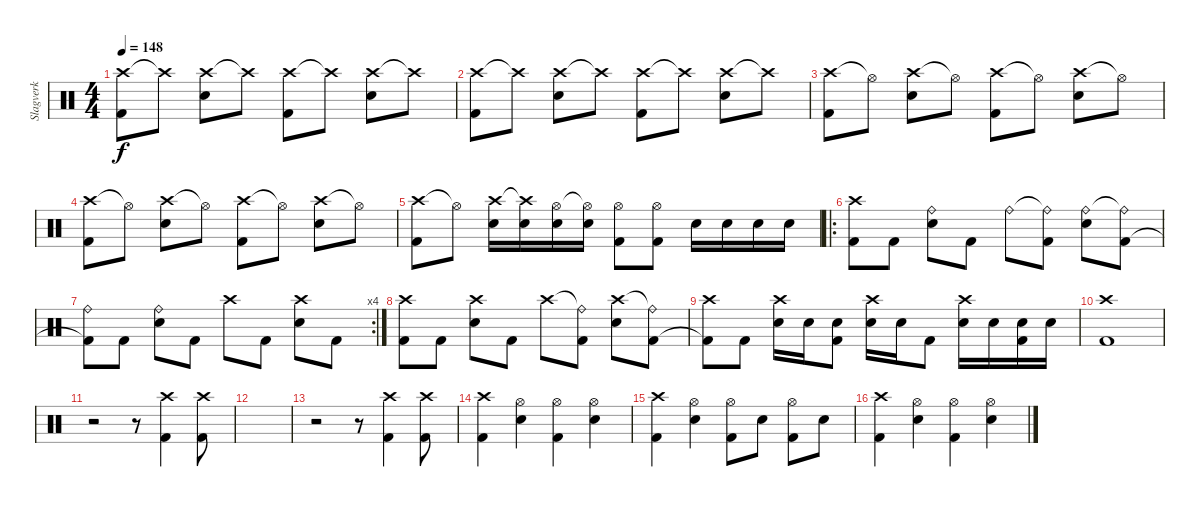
\track ("Slagverk" "Slagverk") {instrument percussion}
\staff {score}
\articulation defaults
\ts (4 4)
\tempo 148
\clef neutral
\ks c
("Crash high (hit)" "Kick (hit) 2").8{dy f} "Crash high (hit)"{t}.8 ("Crash high (hit)" "Electric Snare (hit)").8 "Crash high (hit)"{t}.8 ("Crash high (hit)" "Kick (hit) 2").8 "Crash high (hit)"{t}.8 ("Crash high (hit)" "Electric Snare (hit)").8 "Crash high (hit)"{t}.8 |
("Crash high (hit)" "Kick (hit) 2").8 "Crash high (hit)"{t}.8 ("Crash high (hit)" "Electric Snare (hit)").8 "Crash high (hit)"{t}.8 ("Crash high (hit)" "Kick (hit) 2").8 "Crash high (hit)"{t}.8 ("Crash high (hit)" "Electric Snare (hit)").8 "Crash high (hit)"{t}.8 |
("Crash high (hit)" "Kick (hit) 2").8 "Hi-Hat (open)"{t}.8 ("Crash high (hit)" "Electric Snare (hit)").8 "Hi-Hat (open)"{t}.8 ("Crash high (hit)" "Kick (hit) 2").8 "Hi-Hat (open)"{t}.8 ("Crash high (hit)" "Electric Snare (hit)").8 "Hi-Hat (open)"{t}.8 |
("Crash high (hit)" "Kick (hit) 2").8 "Hi-Hat (open)"{t}.8 ("Crash high (hit)" "Electric Snare (hit)").8 "Hi-Hat (open)"{t}.8 ("Crash high (hit)" "Kick (hit) 2").8 "Hi-Hat (open)"{t}.8 ("Crash high (hit)" "Electric Snare (hit)").8 "Hi-Hat (open)"{t}.8 |
("Crash high (hit)" "Kick (hit) 2").8 "Hi-Hat (open)"{t}.8 ("Crash high (hit)" "Electric Snare (hit)").16 ("Crash high (hit)"{t} "Electric Snare (hit)").16 ("Hi-Hat (open)" "Electric Snare (hit)").16 ("Hi-Hat (open)"{t} "Electric Snare (hit)").16 ("Hi-Hat (open)" "Kick (hit) 2").8 ("Hi-Hat (open)" "Kick (hit) 2").8 "Electric Snare (hit)".16 "Electric Snare (hit)".16 "Electric Snare (hit)".16 "Electric Snare (hit)".16 |
\ro
("Crash high (hit)" "Kick (hit) 2").8 "Kick (hit) 2".8 ("Ride (bell)" "Electric Snare (hit)").8 "Kick (hit) 2".8 "Ride (bell)".8 ("Ride (bell)"{t} "Kick (hit) 2").8 ("Ride (bell)" "Electric Snare (hit)").8 ("Ride (bell)"{t} "Kick (hit) 2").8 |
\rc 4
("Ride (bell)" "Kick (hit) 2"{t}).8 "Kick (hit) 2".8 ("Ride (bell)" "Electric Snare (hit)").8 "Kick (hit) 2".8 "Crash high (hit)".8 "Kick (hit) 2".8 ("Crash high (hit)" "Electric Snare (hit)").8 "Kick (hit) 2".8 |
("Crash high (hit)" "Kick (hit) 2").8 "Kick (hit) 2".8 ("Crash high (hit)" "Electric Snare (hit)").8 "Kick (hit) 2".8 "Crash high (hit)".8 ("Ride (bell)"{t} "Kick (hit) 2").8 ("Crash high (hit)" "Electric Snare (hit)").8 ("Ride (bell)"{t} "Kick (hit) 2").8 |
("Crash high (hit)" "Kick (hit) 2"{t}).8 "Kick (hit) 2".8 ("Crash high (hit)" "Electric Snare (hit)").16 "Electric Snare (hit)".16 ("Electric Snare (hit)" "Kick (hit) 2").8 ("Crash high (hit)" "Electric Snare (hit)").16 "Electric Snare (hit)".16 "Kick (hit) 2".8 ("Crash high (hit)" "Electric Snare (hit)").16 "Electric Snare (hit)".16 ("Electric Snare (hit)" "Kick (hit) 2").16 "Electric Snare (hit)".16 |
("Crash high (hit)" "Kick (hit) 2").1 |
r.2 r.8 ("Crash high (hit)" "Kick (hit) 2").4 ("Crash high (hit)" "Kick (hit) 2").8 |
|
r.2 r.8 ("Crash high (hit)" "Kick (hit) 2").4 ("Crash high (hit)" "Kick (hit) 2").8 |
("Crash high (hit)" "Kick (hit) 2").4 ("Hi-Hat (open)" "Electric Snare (hit)").4 ("Hi-Hat (open)" "Kick (hit) 2").4 ("Hi-Hat (open)" "Electric Snare (hit)").4 |
("Crash high (hit)" "Kick (hit) 2").4 ("Hi-Hat (open)" "Electric Snare (hit)").4 ("Hi-Hat (open)" "Kick (hit) 2").8 "Electric Snare (hit)".8 ("Hi-Hat (open)" "Kick (hit) 2").8 "Electric Snare (hit)".8 |
("Crash high (hit)" "Kick (hit) 2").4 ("Hi-Hat (open)" "Electric Snare (hit)").4 ("Hi-Hat (open)" "Kick (hit) 2").4 ("Hi-Hat (open)" "Electric Snare (hit)").4
